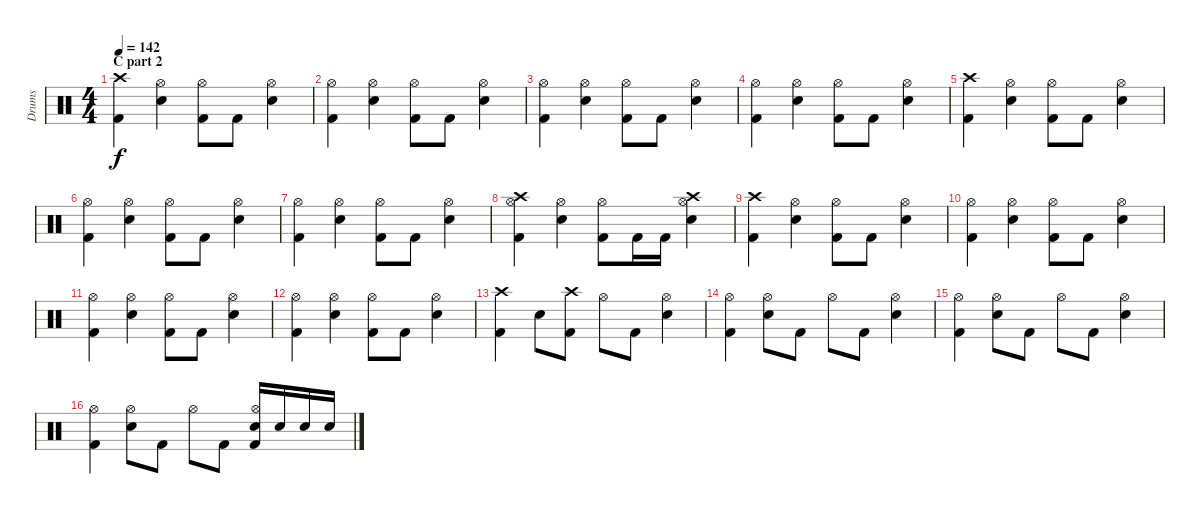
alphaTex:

\track ("Drums" "Drums") {instrument percussion}
\staff {score}
\articulation defaults
\ts (4 4)
\section ("" "C part 2")
\tempo 142
\clef neutral
\ks c
("Crash high (hit)" "Kick (hit) 2").4{dy f} ("Hi-Hat (open)" "Snare (hit) 2").4 ("Hi-Hat (open)" "Kick (hit) 2").8 "Kick (hit) 2".8 ("Hi-Hat (open)" "Snare (hit) 2").4 |
("Hi-Hat (open)" "Kick (hit) 2").4 ("Hi-Hat (open)" "Snare (hit) 2").4 ("Hi-Hat (open)" "Kick (hit) 2").8 "Kick (hit) 2".8 ("Hi-Hat (open)" "Snare (hit) 2").4 |
("Hi-Hat (open)" "Kick (hit) 2").4 ("Hi-Hat (open)" "Snare (hit) 2").4 ("Hi-Hat (open)" "Kick (hit) 2").8 "Kick (hit) 2".8 ("Hi-Hat (open)" "Snare (hit) 2").4 |
("Hi-Hat (open)" "Kick (hit) 2").4 ("Hi-Hat (open)" "Snare (hit) 2").4 ("Hi-Hat (open)" "Kick (hit) 2").8 "Kick (hit) 2".8 ("Hi-Hat (open)" "Snare (hit) 2").4 |
("Crash high (hit)" "Kick (hit) 2").4 ("Hi-Hat (open)" "Snare (hit) 2").4 ("Hi-Hat (open)" "Kick (hit) 2").8 "Kick (hit) 2".8 ("Hi-Hat (open)" "Snare (hit) 2").4 |
("Hi-Hat (open)" "Kick (hit) 2").4 ("Hi-Hat (open)" "Snare (hit) 2").4 ("Hi-Hat (open)" "Kick (hit) 2").8 "Kick (hit) 2".8 ("Hi-Hat (open)" "Snare (hit) 2").4 |
("Hi-Hat (open)" "Kick (hit) 2").4 ("Hi-Hat (open)" "Snare (hit) 2").4 ("Hi-Hat (open)" "Kick (hit) 2").8 "Kick (hit) 2".8 ("Hi-Hat (open)" "Snare (hit) 2").4 |
("Crash high (hit)" "Hi-Hat (open)" "Kick (hit) 2").4 ("Hi-Hat (open)" "Snare (hit) 2").4 ("Hi-Hat (open)" "Kick (hit) 2").8 "Kick (hit) 2".16 "Kick (hit) 2".16 ("Crash high (hit)" "Hi-Hat (open)" "Snare (hit) 2").4 |
("Crash high (hit)" "Kick (hit) 2").4 ("Hi-Hat (open)" "Snare (hit) 2").4 ("Hi-Hat (open)" "Kick (hit) 2").8 "Kick (hit) 2".8 ("Hi-Hat (open)" "Snare (hit) 2").4 |
("Hi-Hat (open)" "Kick (hit) 2").4 ("Hi-Hat (open)" "Snare (hit) 2").4 ("Hi-Hat (open)" "Kick (hit) 2").8 "Kick (hit) 2".8 ("Hi-Hat (open)" "Snare (hit) 2").4 |
("Hi-Hat (open)" "Kick (hit) 2").4 ("Hi-Hat (open)" "Snare (hit) 2").4 ("Hi-Hat (open)" "Kick (hit) 2").8 "Kick (hit) 2".8 ("Hi-Hat (open)" "Snare (hit) 2").4 |
("Hi-Hat (open)" "Kick (hit) 2").4 ("Hi-Hat (open)" "Snare (hit) 2").4 ("Hi-Hat (open)" "Kick (hit) 2").8 "Kick (hit) 2".8 ("Hi-Hat (open)" "Snare (hit) 2").4 |
("Crash high (hit)" "Kick (hit) 2").4 "Snare (hit) 2".8 ("Crash high (hit)" "Kick (hit) 2").8 "Hi-Hat (open)".8 "Kick (hit) 2".8 ("Hi-Hat (open)" "Snare (hit) 2").4 |
("Hi-Hat (open)" "Kick (hit) 2").4 ("Hi-Hat (open)" "Snare (hit) 2").8 "Kick (hit) 2".8 "Hi-Hat (open)".8 "Kick (hit) 2".8 ("Hi-Hat (open)" "Snare (hit) 2").4 |
("Hi-Hat (open)" "Kick (hit) 2").4 ("Hi-Hat (open)" "Snare (hit) 2").8 "Kick (hit) 2".8 "Hi-Hat (open)".8 "Kick (hit) 2".8 ("Hi-Hat (open)" "Snare (hit) 2").4 |
("Hi-Hat (open)" "Kick (hit) 2").4 ("Hi-Hat (open)" "Snare (hit) 2").8 "Kick (hit) 2".8 "Hi-Hat (open)".8 "Kick (hit) 2".8 ("Hi-Hat (open)" "Snare (hit) 2" "Kick (hit) 2").16 "Snare (hit) 2".16 "Snare (hit) 2".16 "Snare (hit) 2".16
